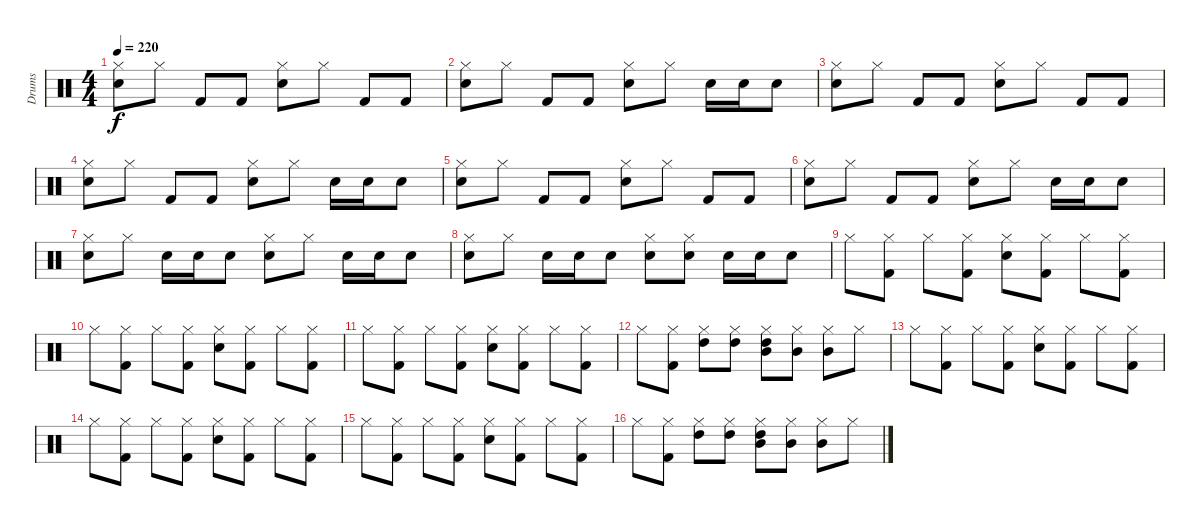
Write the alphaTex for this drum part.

\track ("Drums" "Drums") {instrument percussion}
\staff {score}
\articulation defaults
\ts (4 4)
\tempo 220
\clef neutral
\ks c
("Hi-Hat (closed)" "Snare (hit) 2").8{dy f} "Hi-Hat (closed)".8 "Kick (hit) 2".8 "Kick (hit) 2".8 ("Hi-Hat (closed)" "Snare (hit) 2").8 "Hi-Hat (closed)".8 "Kick (hit) 2".8 "Kick (hit) 2".8 |
("Hi-Hat (closed)" "Snare (hit) 2").8 "Hi-Hat (closed)".8 "Kick (hit) 2".8 "Kick (hit) 2".8 ("Hi-Hat (closed)" "Snare (hit) 2").8 "Hi-Hat (closed)".8 "Snare (hit) 2".16 "Snare (hit) 2".16 "Snare (hit) 2".8 |
("Hi-Hat (closed)" "Snare (hit) 2").8 "Hi-Hat (closed)".8 "Kick (hit) 2".8 "Kick (hit) 2".8 ("Hi-Hat (closed)" "Snare (hit) 2").8 "Hi-Hat (closed)".8 "Kick (hit) 2".8 "Kick (hit) 2".8 |
("Hi-Hat (closed)" "Snare (hit) 2").8 "Hi-Hat (closed)".8 "Kick (hit) 2".8 "Kick (hit) 2".8 ("Hi-Hat (closed)" "Snare (hit) 2").8 "Hi-Hat (closed)".8 "Snare (hit) 2".16 "Snare (hit) 2".16 "Snare (hit) 2".8 |
("Hi-Hat (closed)" "Snare (hit) 2").8 "Hi-Hat (closed)".8 "Kick (hit) 2".8 "Kick (hit) 2".8 ("Hi-Hat (closed)" "Snare (hit) 2").8 "Hi-Hat (closed)".8 "Kick (hit) 2".8 "Kick (hit) 2".8 |
("Hi-Hat (closed)" "Snare (hit) 2").8 "Hi-Hat (closed)".8 "Kick (hit) 2".8 "Kick (hit) 2".8 ("Hi-Hat (closed)" "Snare (hit) 2").8 "Hi-Hat (closed)".8 "Snare (hit) 2".16 "Snare (hit) 2".16 "Snare (hit) 2".8 |
("Hi-Hat (closed)" "Snare (hit) 2").8 "Hi-Hat (closed)".8 "Snare (hit) 2".16 "Snare (hit) 2".16 "Snare (hit) 2".8 ("Hi-Hat (closed)" "Snare (hit) 2").8 "Hi-Hat (closed)".8 "Snare (hit) 2".16 "Snare (hit) 2".16 "Snare (hit) 2".8 |
("Hi-Hat (closed)" "Snare (hit) 2").8 "Hi-Hat (closed)".8 "Snare (hit) 2".16 "Snare (hit) 2".16 "Snare (hit) 2".8 ("Hi-Hat (closed)" "Snare (hit) 2").8 ("Hi-Hat (closed)" "Snare (hit) 2").8 "Snare (hit) 2".16 "Snare (hit) 2".16 "Snare (hit) 2".8 |
"Hi-Hat (closed)".8 ("Hi-Hat (closed)" "Kick (hit) 2").8 "Hi-Hat (closed)".8 ("Hi-Hat (closed)" "Kick (hit) 2").8 ("Hi-Hat (closed)" "Snare (hit) 2").8 ("Hi-Hat (closed)" "Kick (hit) 2").8 "Hi-Hat (closed)".8 ("Hi-Hat (closed)" "Kick (hit) 2").8 |
"Hi-Hat (closed)".8 ("Hi-Hat (closed)" "Kick (hit) 2").8 "Hi-Hat (closed)".8 ("Hi-Hat (closed)" "Kick (hit) 2").8 ("Hi-Hat (closed)" "Snare (hit) 2").8 ("Hi-Hat (closed)" "Kick (hit) 2").8 "Hi-Hat (closed)".8 ("Hi-Hat (closed)" "Kick (hit) 2").8 |
"Hi-Hat (closed)".8 ("Hi-Hat (closed)" "Kick (hit) 2").8 "Hi-Hat (closed)".8 ("Hi-Hat (closed)" "Kick (hit) 2").8 ("Hi-Hat (closed)" "Snare (hit) 2").8 ("Hi-Hat (closed)" "Kick (hit) 2").8 "Hi-Hat (closed)".8 ("Hi-Hat (closed)" "Kick (hit) 2").8 |
"Hi-Hat (closed)".8 ("Hi-Hat (closed)" "Kick (hit) 2").8 ("Hi-Hat (closed)" "High Tom (hit)").8 ("Hi-Hat (closed)" "High Tom (hit)").8 ("Hi-Hat (closed)" "High Tom (hit)" "Mid Tom (hit)").8 ("Hi-Hat (closed)" "Mid Tom (hit)").8 ("Hi-Hat (closed)" "Mid Tom (hit)").8 "Hi-Hat (closed)".8 |
"Hi-Hat (closed)".8 ("Hi-Hat (closed)" "Kick (hit) 2").8 "Hi-Hat (closed)".8 ("Hi-Hat (closed)" "Kick (hit) 2").8 ("Hi-Hat (closed)" "Snare (hit) 2").8 ("Hi-Hat (closed)" "Kick (hit) 2").8 "Hi-Hat (closed)".8 ("Hi-Hat (closed)" "Kick (hit) 2").8 |
"Hi-Hat (closed)".8 ("Hi-Hat (closed)" "Kick (hit) 2").8 "Hi-Hat (closed)".8 ("Hi-Hat (closed)" "Kick (hit) 2").8 ("Hi-Hat (closed)" "Snare (hit) 2").8 ("Hi-Hat (closed)" "Kick (hit) 2").8 "Hi-Hat (closed)".8 ("Hi-Hat (closed)" "Kick (hit) 2").8 |
"Hi-Hat (closed)".8 ("Hi-Hat (closed)" "Kick (hit) 2").8 "Hi-Hat (closed)".8 ("Hi-Hat (closed)" "Kick (hit) 2").8 ("Hi-Hat (closed)" "Snare (hit) 2").8 ("Hi-Hat (closed)" "Kick (hit) 2").8 "Hi-Hat (closed)".8 ("Hi-Hat (closed)" "Kick (hit) 2").8 |
"Hi-Hat (closed)".8 ("Hi-Hat (closed)" "Kick (hit) 2").8 ("Hi-Hat (closed)" "High Tom (hit)").8 ("Hi-Hat (closed)" "High Tom (hit)").8 ("Hi-Hat (closed)" "High Tom (hit)" "Mid Tom (hit)").8 ("Hi-Hat (closed)" "Mid Tom (hit)").8 ("Hi-Hat (closed)" "Mid Tom (hit)").8 "Hi-Hat (closed)".8
